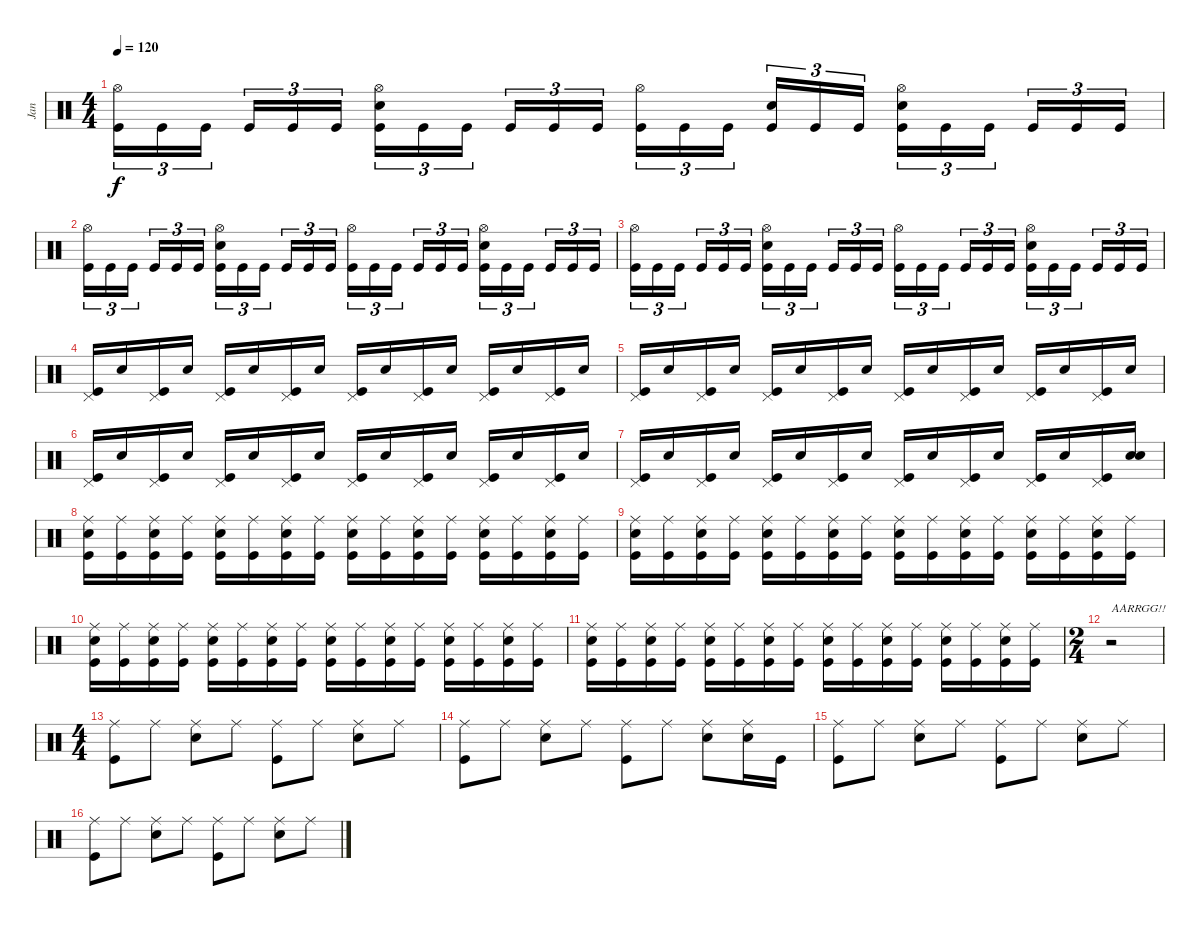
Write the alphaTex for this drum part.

\track ("Jan" "Jan") {instrument percussion}
\staff {score}
\articulation defaults
\ts (4 4)
\tempo 120
\clef neutral
\ks c
("Hi-Hat (open)" "Kick (hit)").16{tu (3 2) dy f} "Kick (hit)".16{tu (3 2)} "Kick (hit)".16{tu (3 2)} "Kick (hit)".16{tu (3 2)} "Kick (hit)".16{tu (3 2)} "Kick (hit)".16{tu (3 2)} ("Hi-Hat (open)" "Snare (hit) 2" "Kick (hit)").16{tu (3 2)} "Kick (hit)".16{tu (3 2)} "Kick (hit)".16{tu (3 2)} "Kick (hit)".16{tu (3 2)} "Kick (hit)".16{tu (3 2)} "Kick (hit)".16{tu (3 2)} ("Hi-Hat (open)" "Kick (hit)").16{tu (3 2)} "Kick (hit)".16{tu (3 2)} "Kick (hit)".16{tu (3 2)} ("Snare (hit) 2" "Kick (hit)").16{tu (3 2)} "Kick (hit)".16{tu (3 2)} "Kick (hit)".16{tu (3 2)} ("Hi-Hat (open)" "Snare (hit) 2" "Kick (hit)").16{tu (3 2)} "Kick (hit)".16{tu (3 2)} "Kick (hit)".16{tu (3 2)} "Kick (hit)".16{tu (3 2)} "Kick (hit)".16{tu (3 2)} "Kick (hit)".16{tu (3 2)} |
("Hi-Hat (open)" "Kick (hit)").16{tu (3 2)} "Kick (hit)".16{tu (3 2)} "Kick (hit)".16{tu (3 2)} "Kick (hit)".16{tu (3 2)} "Kick (hit)".16{tu (3 2)} "Kick (hit)".16{tu (3 2)} ("Hi-Hat (open)" "Snare (hit) 2" "Kick (hit)").16{tu (3 2)} "Kick (hit)".16{tu (3 2)} "Kick (hit)".16{tu (3 2)} "Kick (hit)".16{tu (3 2)} "Kick (hit)".16{tu (3 2)} "Kick (hit)".16{tu (3 2)} ("Hi-Hat (open)" "Kick (hit)").16{tu (3 2)} "Kick (hit)".16{tu (3 2)} "Kick (hit)".16{tu (3 2)} "Kick (hit)".16{tu (3 2)} "Kick (hit)".16{tu (3 2)} "Kick (hit)".16{tu (3 2)} ("Hi-Hat (open)" "Snare (hit) 2" "Kick (hit)").16{tu (3 2)} "Kick (hit)".16{tu (3 2)} "Kick (hit)".16{tu (3 2)} "Kick (hit)".16{tu (3 2)} "Kick (hit)".16{tu (3 2)} "Kick (hit)".16{tu (3 2)} |
("Hi-Hat (open)" "Kick (hit)").16{tu (3 2)} "Kick (hit)".16{tu (3 2)} "Kick (hit)".16{tu (3 2)} "Kick (hit)".16{tu (3 2)} "Kick (hit)".16{tu (3 2)} "Kick (hit)".16{tu (3 2)} ("Hi-Hat (open)" "Snare (hit) 2" "Kick (hit)").16{tu (3 2)} "Kick (hit)".16{tu (3 2)} "Kick (hit)".16{tu (3 2)} "Kick (hit)".16{tu (3 2)} "Kick (hit)".16{tu (3 2)} "Kick (hit)".16{tu (3 2)} ("Hi-Hat (open)" "Kick (hit)").16{tu (3 2)} "Kick (hit)".16{tu (3 2)} "Kick (hit)".16{tu (3 2)} "Kick (hit)".16{tu (3 2)} "Kick (hit)".16{tu (3 2)} "Kick (hit)".16{tu (3 2)} ("Hi-Hat (open)" "Snare (hit) 2" "Kick (hit)").16{tu (3 2)} "Kick (hit)".16{tu (3 2)} "Kick (hit)".16{tu (3 2)} "Kick (hit)".16{tu (3 2)} "Kick (hit)".16{tu (3 2)} "Kick (hit)".16{tu (3 2)} |
("Pedal Hi-Hat (hit)" "Kick (hit)").16 "Snare (hit) 2".16 ("Pedal Hi-Hat (hit)" "Kick (hit)").16 "Snare (hit) 2".16 ("Pedal Hi-Hat (hit)" "Kick (hit)").16 "Snare (hit) 2".16 ("Pedal Hi-Hat (hit)" "Kick (hit)").16 "Snare (hit) 2".16 ("Pedal Hi-Hat (hit)" "Kick (hit)").16 "Snare (hit) 2".16 ("Pedal Hi-Hat (hit)" "Kick (hit)").16 "Snare (hit) 2".16 ("Pedal Hi-Hat (hit)" "Kick (hit)").16 "Snare (hit) 2".16 ("Pedal Hi-Hat (hit)" "Kick (hit)").16 "Snare (hit) 2".16 |
("Pedal Hi-Hat (hit)" "Kick (hit)").16 "Snare (hit) 2".16 ("Pedal Hi-Hat (hit)" "Kick (hit)").16 "Snare (hit) 2".16 ("Pedal Hi-Hat (hit)" "Kick (hit)").16 "Snare (hit) 2".16 ("Pedal Hi-Hat (hit)" "Kick (hit)").16 "Snare (hit) 2".16 ("Pedal Hi-Hat (hit)" "Kick (hit)").16 "Snare (hit) 2".16 ("Pedal Hi-Hat (hit)" "Kick (hit)").16 "Snare (hit) 2".16 ("Pedal Hi-Hat (hit)" "Kick (hit)").16 "Snare (hit) 2".16 ("Pedal Hi-Hat (hit)" "Kick (hit)").16 "Snare (hit) 2".16 |
("Pedal Hi-Hat (hit)" "Kick (hit)").16 "Snare (hit) 2".16 ("Pedal Hi-Hat (hit)" "Kick (hit)").16 "Snare (hit) 2".16 ("Pedal Hi-Hat (hit)" "Kick (hit)").16 "Snare (hit) 2".16 ("Pedal Hi-Hat (hit)" "Kick (hit)").16 "Snare (hit) 2".16 ("Pedal Hi-Hat (hit)" "Kick (hit)").16 "Snare (hit) 2".16 ("Pedal Hi-Hat (hit)" "Kick (hit)").16 "Snare (hit) 2".16 ("Pedal Hi-Hat (hit)" "Kick (hit)").16 "Snare (hit) 2".16 ("Pedal Hi-Hat (hit)" "Kick (hit)").16 "Snare (hit) 2".16 |
("Pedal Hi-Hat (hit)" "Kick (hit)").16 "Snare (hit) 2".16 ("Pedal Hi-Hat (hit)" "Kick (hit)").16 "Snare (hit) 2".16 ("Pedal Hi-Hat (hit)" "Kick (hit)").16 "Snare (hit) 2".16 ("Pedal Hi-Hat (hit)" "Kick (hit)").16 "Snare (hit) 2".16 ("Pedal Hi-Hat (hit)" "Kick (hit)").16 "Snare (hit) 2".16 ("Pedal Hi-Hat (hit)" "Kick (hit)").16 "Snare (hit) 2".16 ("Pedal Hi-Hat (hit)" "Kick (hit)").16 "Snare (hit) 2".16 ("Pedal Hi-Hat (hit)" "Kick (hit)").16 ("Snare (hit) 2" "Snare (hit)").16 |
("Ride (middle)" "Snare (hit) 2" "Kick (hit)").16 ("Ride (middle)" "Kick (hit)").16 ("Ride (middle)" "Snare (hit) 2" "Kick (hit)").16 ("Ride (middle)" "Kick (hit)").16 ("Ride (middle)" "Snare (hit) 2" "Kick (hit)").16 ("Ride (middle)" "Kick (hit)").16 ("Ride (middle)" "Snare (hit) 2" "Kick (hit)").16 ("Ride (middle)" "Kick (hit)").16 ("Ride (middle)" "Snare (hit) 2" "Kick (hit)").16 ("Ride (middle)" "Kick (hit)").16 ("Ride (middle)" "Snare (hit) 2" "Kick (hit)").16 ("Ride (middle)" "Kick (hit)").16 ("Ride (middle)" "Snare (hit) 2" "Kick (hit)").16 ("Ride (middle)" "Kick (hit)").16 ("Ride (middle)" "Snare (hit) 2" "Kick (hit)").16 ("Ride (middle)" "Kick (hit)").16 |
("Ride (middle)" "Snare (hit) 2" "Kick (hit)").16 ("Ride (middle)" "Kick (hit)").16 ("Ride (middle)" "Snare (hit) 2" "Kick (hit)").16 ("Ride (middle)" "Kick (hit)").16 ("Ride (middle)" "Snare (hit) 2" "Kick (hit)").16 ("Ride (middle)" "Kick (hit)").16 ("Ride (middle)" "Snare (hit) 2" "Kick (hit)").16 ("Ride (middle)" "Kick (hit)").16 ("Ride (middle)" "Snare (hit) 2" "Kick (hit)").16 ("Ride (middle)" "Kick (hit)").16 ("Ride (middle)" "Snare (hit) 2" "Kick (hit)").16 ("Ride (middle)" "Kick (hit)").16 ("Ride (middle)" "Snare (hit) 2" "Kick (hit)").16 ("Ride (middle)" "Kick (hit)").16 ("Ride (middle)" "Snare (hit) 2" "Kick (hit)").16 ("Ride (middle)" "Kick (hit)").16 |
("Ride (middle)" "Snare (hit) 2" "Kick (hit)").16 ("Ride (middle)" "Kick (hit)").16 ("Ride (middle)" "Snare (hit) 2" "Kick (hit)").16 ("Ride (middle)" "Kick (hit)").16 ("Ride (middle)" "Snare (hit) 2" "Kick (hit)").16 ("Ride (middle)" "Kick (hit)").16 ("Ride (middle)" "Snare (hit) 2" "Kick (hit)").16 ("Ride (middle)" "Kick (hit)").16 ("Ride (middle)" "Snare (hit) 2" "Kick (hit)").16 ("Ride (middle)" "Kick (hit)").16 ("Ride (middle)" "Snare (hit) 2" "Kick (hit)").16 ("Ride (middle)" "Kick (hit)").16 ("Ride (middle)" "Snare (hit) 2" "Kick (hit)").16 ("Ride (middle)" "Kick (hit)").16 ("Ride (middle)" "Snare (hit) 2" "Kick (hit)").16 ("Ride (middle)" "Kick (hit)").16 |
("Ride (middle)" "Snare (hit) 2" "Kick (hit)").16 ("Ride (middle)" "Kick (hit)").16 ("Ride (middle)" "Snare (hit) 2" "Kick (hit)").16 ("Ride (middle)" "Kick (hit)").16 ("Ride (middle)" "Snare (hit) 2" "Kick (hit)").16 ("Ride (middle)" "Kick (hit)").16 ("Ride (middle)" "Snare (hit) 2" "Kick (hit)").16 ("Ride (middle)" "Kick (hit)").16 ("Ride (middle)" "Snare (hit) 2" "Kick (hit)").16 ("Ride (middle)" "Kick (hit)").16 ("Ride (middle)" "Snare (hit) 2" "Kick (hit)").16 ("Ride (middle)" "Kick (hit)").16 ("Ride (middle)" "Snare (hit) 2" "Kick (hit)").16 ("Ride (middle)" "Kick (hit)").16 ("Ride (middle)" "Snare (hit) 2" "Kick (hit)").16 ("Ride (middle)" "Kick (hit)").16 |
\ts (2 4)
r.2{txt "AARRGG!!"} |
\ts (4 4)
("Ride (middle)" "Kick (hit)").8 "Ride (middle)".8 ("Ride (middle)" "Snare (hit) 2").8 "Ride (middle)".8 ("Ride (middle)" "Kick (hit)").8 "Ride (middle)".8 ("Ride (middle)" "Snare (hit) 2").8 "Ride (middle)".8 |
("Ride (middle)" "Kick (hit)").8 "Ride (middle)".8 ("Ride (middle)" "Snare (hit) 2").8 "Ride (middle)".8 ("Ride (middle)" "Kick (hit)").8 "Ride (middle)".8 ("Ride (middle)" "Snare (hit) 2").8 ("Ride (middle)" "Snare (hit) 2").16 "Kick (hit)".16 |
("Ride (middle)" "Kick (hit)").8 "Ride (middle)".8 ("Ride (middle)" "Snare (hit) 2").8 "Ride (middle)".8 ("Ride (middle)" "Kick (hit)").8 "Ride (middle)".8 ("Ride (middle)" "Snare (hit) 2").8 "Ride (middle)".8 |
("Ride (middle)" "Kick (hit)").8 "Ride (middle)".8 ("Ride (middle)" "Snare (hit) 2").8 "Ride (middle)".8 ("Ride (middle)" "Kick (hit)").8 "Ride (middle)".8 ("Ride (middle)" "Snare (hit) 2").8 "Ride (middle)".8
